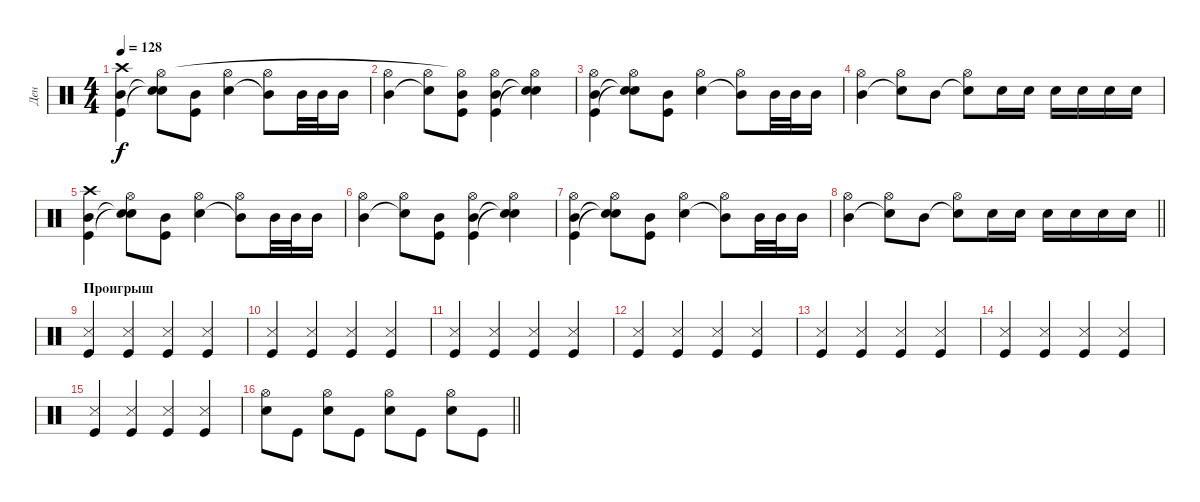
\track ("Ден" "Ден") {instrument percussion}
\staff
\articulation defaults
\ts (4 4)
\tempo 128
\clef neutral
\ks c
("Kick (hit)" "Mid Tom (hit)" "Crash high (hit)").4{dy f} ("Snare (hit)"{t} "Snare (hit)"{t} "Hi-Hat (open)").8 ("Mid Tom (hit)" "Kick (hit)").8 ("Snare (hit) 2" "Hi-Hat (open)").4 ("Mid Tom (hit)"{t} "Hi-Hat (open)").8 "Mid Tom (hit)".32 "Mid Tom (hit)".32 "Mid Tom (hit)".16 |
("Mid Tom (hit)" "Hi-Hat (open)").4 ("Snare (hit)"{t} "Hi-Hat (open)").8 ("Mid Tom (hit)" "Kick (hit)" "Hi-Hat (open)"{t}).8 ("Kick (hit)" "Mid Tom (hit)" "Hi-Hat (open)").4 ("Snare (hit)"{t} "Snare (hit)"{t} "Hi-Hat (open)").4 |
("Kick (hit)" "Mid Tom (hit)" "Hi-Hat (open)").4 ("Snare (hit)"{t} "Snare (hit)"{t} "Hi-Hat (open)").8 ("Mid Tom (hit)" "Kick (hit)").8 ("Snare (hit) 2" "Hi-Hat (open)").4 ("Mid Tom (hit)"{t} "Hi-Hat (open)").8 "Mid Tom (hit)".32 "Mid Tom (hit)".32 "Mid Tom (hit)".16 |
("Mid Tom (hit)" "Hi-Hat (open)").4 ("Snare (hit)"{t} "Hi-Hat (open)").8 "Mid Tom (hit)".8 ("Snare (hit)"{t} "Hi-Hat (open)").8 "Snare (hit) 2".16 "Snare (hit) 2".16 "Snare (hit) 2".16 "Snare (hit) 2".16 "Snare (hit) 2".16 "Snare (hit) 2".16 |
("Kick (hit)" "Mid Tom (hit)" "Crash high (hit)").4 ("Snare (hit)"{t} "Snare (hit)"{t} "Hi-Hat (open)").8 ("Mid Tom (hit)" "Kick (hit)").8 ("Snare (hit) 2" "Hi-Hat (open)").4 ("Mid Tom (hit)"{t} "Hi-Hat (open)").8 "Mid Tom (hit)".32 "Mid Tom (hit)".32 "Mid Tom (hit)".16 |
("Mid Tom (hit)" "Hi-Hat (open)").4 ("Snare (hit)"{t} "Hi-Hat (open)").8 ("Mid Tom (hit)" "Kick (hit)").8 ("Kick (hit)" "Mid Tom (hit)" "Hi-Hat (open)").4 ("Snare (hit)"{t} "Snare (hit)"{t} "Hi-Hat (open)").4 |
("Kick (hit)" "Mid Tom (hit)" "Hi-Hat (open)").4 ("Snare (hit)"{t} "Snare (hit)"{t} "Hi-Hat (open)").8 ("Mid Tom (hit)" "Kick (hit)").8 ("Snare (hit) 2" "Hi-Hat (open)").4 ("Mid Tom (hit)"{t} "Hi-Hat (open)").8 "Mid Tom (hit)".32 "Mid Tom (hit)".32 "Mid Tom (hit)".16 |
\barLineRight lightlight
("Mid Tom (hit)" "Hi-Hat (open)").4 ("Snare (hit)"{t} "Hi-Hat (open)").8 "Mid Tom (hit)".8 ("Snare (hit)"{t} "Hi-Hat (open)").8 "Snare (hit) 2".16 "Snare (hit) 2".16 "Snare (hit) 2".16 "Snare (hit) 2".16 "Snare (hit) 2".16 "Snare (hit) 2".16 |
\section ("" "Проигрыш")
("Kick (hit)" "Snare (side stick) 3").4 ("Kick (hit)" "Snare (side stick) 3").4 ("Kick (hit)" "Snare (side stick) 3").4 ("Kick (hit)" "Snare (side stick) 3").4 |
("Kick (hit)" "Snare (side stick) 3").4 ("Kick (hit)" "Snare (side stick) 3").4 ("Kick (hit)" "Snare (side stick) 3").4 ("Kick (hit)" "Snare (side stick) 3").4 |
("Kick (hit)" "Snare (side stick) 3").4 ("Kick (hit)" "Snare (side stick) 3").4 ("Kick (hit)" "Snare (side stick) 3").4 ("Kick (hit)" "Snare (side stick) 3").4 |
("Kick (hit)" "Snare (side stick) 3").4 ("Kick (hit)" "Snare (side stick) 3").4 ("Kick (hit)" "Snare (side stick) 3").4 ("Kick (hit)" "Snare (side stick) 3").4 |
("Kick (hit)" "Snare (side stick) 3").4 ("Kick (hit)" "Snare (side stick) 3").4 ("Kick (hit)" "Snare (side stick) 3").4 ("Kick (hit)" "Snare (side stick) 3").4 |
("Kick (hit)" "Snare (side stick) 3").4 ("Kick (hit)" "Snare (side stick) 3").4 ("Kick (hit)" "Snare (side stick) 3").4 ("Kick (hit)" "Snare (side stick) 3").4 |
("Kick (hit)" "Snare (side stick) 3").4 ("Kick (hit)" "Snare (side stick) 3").4 ("Kick (hit)" "Snare (side stick) 3").4 ("Kick (hit)" "Snare (side stick) 3").4 |
\barLineRight lightlight
("Snare (hit) 2" "Hi-Hat (open)").8 "Kick (hit)".8 ("Snare (hit) 2" "Hi-Hat (open)").8 "Kick (hit)".8 ("Snare (hit) 2" "Hi-Hat (open)").8 "Kick (hit)".8 ("Snare (hit) 2" "Hi-Hat (open)").8 "Kick (hit)".8
